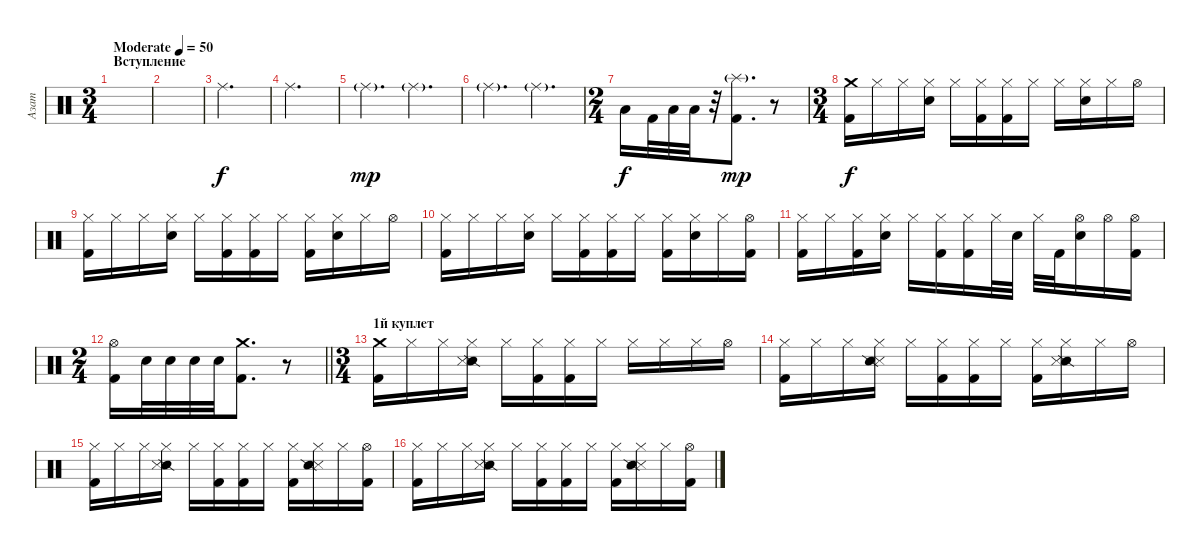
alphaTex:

\track ("Азат" "Азат") {instrument percussion}
\staff {score}
\articulation defaults
\ts (3 4)
\section ("" "Вступление")
\tempo (50 "Moderate")
\clef neutral
\ks c
|
|
"Ride (middle)".2{d} |
"Ride (middle)".2{d} |
"Ride (middle)"{g}.4{d dy mp} "Ride (middle)"{g}.4{d} |
"Ride (middle)"{g}.4{d} "Ride (middle)"{g}.4{d} |
\ts (2 4)
"Low Tom (hit)".16{dy f} "Kick (hit) 2".32 "Low Floor Tom (hit)".32 "Low Tom (hit)".32 r.32 ("Kick (hit) 2" "Splash (hit)"{g}).8{d dy mp} r.8 |
\ts (3 4)
("Crash medium (hit)" "Kick (hit) 2").16{dy f} "Hi-Hat (closed)".16 "Hi-Hat (closed)".16 ("Electric Snare (hit)" "Hi-Hat (closed)").16 "Hi-Hat (closed)".16 ("Kick (hit) 2" "Hi-Hat (closed)").16 ("Kick (hit) 2" "Hi-Hat (closed)").16 "Hi-Hat (closed)".16 "Hi-Hat (closed)".16 ("Electric Snare (hit)" "Hi-Hat (closed)").16 "Hi-Hat (closed)".16 "Hi-Hat (open)".16 |
("Kick (hit) 2" "Hi-Hat (closed)").16 "Hi-Hat (closed)".16 "Hi-Hat (closed)".16 ("Electric Snare (hit)" "Hi-Hat (closed)").16 "Hi-Hat (closed)".16 ("Kick (hit) 2" "Hi-Hat (closed)").16 ("Kick (hit) 2" "Hi-Hat (closed)").16 "Hi-Hat (closed)".16 ("Kick (hit) 2" "Hi-Hat (closed)").16 ("Electric Snare (hit)" "Hi-Hat (closed)").16 "Hi-Hat (closed)".16 "Hi-Hat (open)".16 |
("Kick (hit) 2" "Hi-Hat (closed)").16 "Hi-Hat (closed)".16 "Hi-Hat (closed)".16 ("Electric Snare (hit)" "Hi-Hat (closed)").16 "Hi-Hat (closed)".16 ("Kick (hit) 2" "Hi-Hat (closed)").16 ("Kick (hit) 2" "Hi-Hat (closed)").16 "Hi-Hat (closed)".16 ("Kick (hit) 2" "Hi-Hat (closed)").16 ("Electric Snare (hit)" "Hi-Hat (closed)").16 "Hi-Hat (closed)".16 ("Kick (hit) 2" "Hi-Hat (open)").16 |
("Kick (hit) 2" "Hi-Hat (closed)").16 "Hi-Hat (closed)".16 ("Kick (hit) 2" "Hi-Hat (closed)").16 ("Electric Snare (hit)" "Hi-Hat (closed)").16 "Hi-Hat (closed)".16 ("Kick (hit) 2" "Hi-Hat (closed)").16 ("Kick (hit) 2" "Hi-Hat (closed)").16 "Hi-Hat (closed)".32 "Electric Snare (hit)".32 "Hi-Hat (closed)".32 "Kick (hit) 2".32 ("Electric Snare (hit)" "Hi-Hat (open)").16 "Hi-Hat (open)".16 ("Kick (hit) 2" "Hi-Hat (open)").16 |
\ts (2 4)
\barLineRight lightlight
("Kick (hit) 2" "Hi-Hat (open)").16 "Electric Snare (hit)".32 "Electric Snare (hit)".32 "Electric Snare (hit)".32 "Electric Snare (hit)".32 ("Kick (hit) 2" "Crash medium (hit)").8{d} r.8 |
\ts (3 4)
\section ("" "1й куплет")
("Crash medium (hit)" "Kick (hit) 2").16 "Hi-Hat (closed)".16 "Hi-Hat (closed)".16 ("Snare (side stick) 2" "Snare (side stick) 3" "Hi-Hat (closed)").16 "Hi-Hat (closed)".16 ("Kick (hit) 2" "Hi-Hat (closed)").16 ("Kick (hit) 2" "Hi-Hat (closed)").16 "Hi-Hat (closed)".16 "Hi-Hat (closed)".16 "Hi-Hat (closed)".16 "Hi-Hat (closed)".16 "Hi-Hat (open)".16 |
("Kick (hit) 2" "Hi-Hat (closed)").16 "Hi-Hat (closed)".16 "Hi-Hat (closed)".16 ("Snare (side stick) 3" "Snare (side stick) 2" "Hi-Hat (closed)").16 "Hi-Hat (closed)".16 ("Kick (hit) 2" "Hi-Hat (closed)").16 ("Kick (hit) 2" "Hi-Hat (closed)").16 "Hi-Hat (closed)".16 ("Kick (hit) 2" "Hi-Hat (closed)").16 ("Snare (side stick) 2" "Snare (side stick) 3" "Hi-Hat (closed)").16 "Hi-Hat (closed)".16 "Hi-Hat (open)".16 |
("Kick (hit) 2" "Hi-Hat (closed)").16 "Hi-Hat (closed)".16 "Hi-Hat (closed)".16 ("Snare (side stick) 2" "Snare (side stick) 3" "Hi-Hat (closed)").16 "Hi-Hat (closed)".16 ("Kick (hit) 2" "Hi-Hat (closed)").16 ("Kick (hit) 2" "Hi-Hat (closed)").16 "Hi-Hat (closed)".16 ("Kick (hit) 2" "Hi-Hat (closed)").16 ("Snare (side stick) 3" "Snare (side stick) 2" "Hi-Hat (closed)").16 "Hi-Hat (closed)".16 ("Kick (hit) 2" "Hi-Hat (open)").16 |
("Kick (hit) 2" "Hi-Hat (closed)").16 "Hi-Hat (closed)".16 "Hi-Hat (closed)".16 ("Snare (side stick) 2" "Snare (side stick) 3" "Hi-Hat (closed)").16 "Hi-Hat (closed)".16 ("Kick (hit) 2" "Hi-Hat (closed)").16 ("Kick (hit) 2" "Hi-Hat (closed)").16 "Hi-Hat (closed)".16 ("Kick (hit) 2" "Hi-Hat (closed)").16 ("Snare (side stick) 3" "Snare (side stick) 2" "Hi-Hat (closed)").16 "Hi-Hat (closed)".16 ("Kick (hit) 2" "Hi-Hat (open)").16
